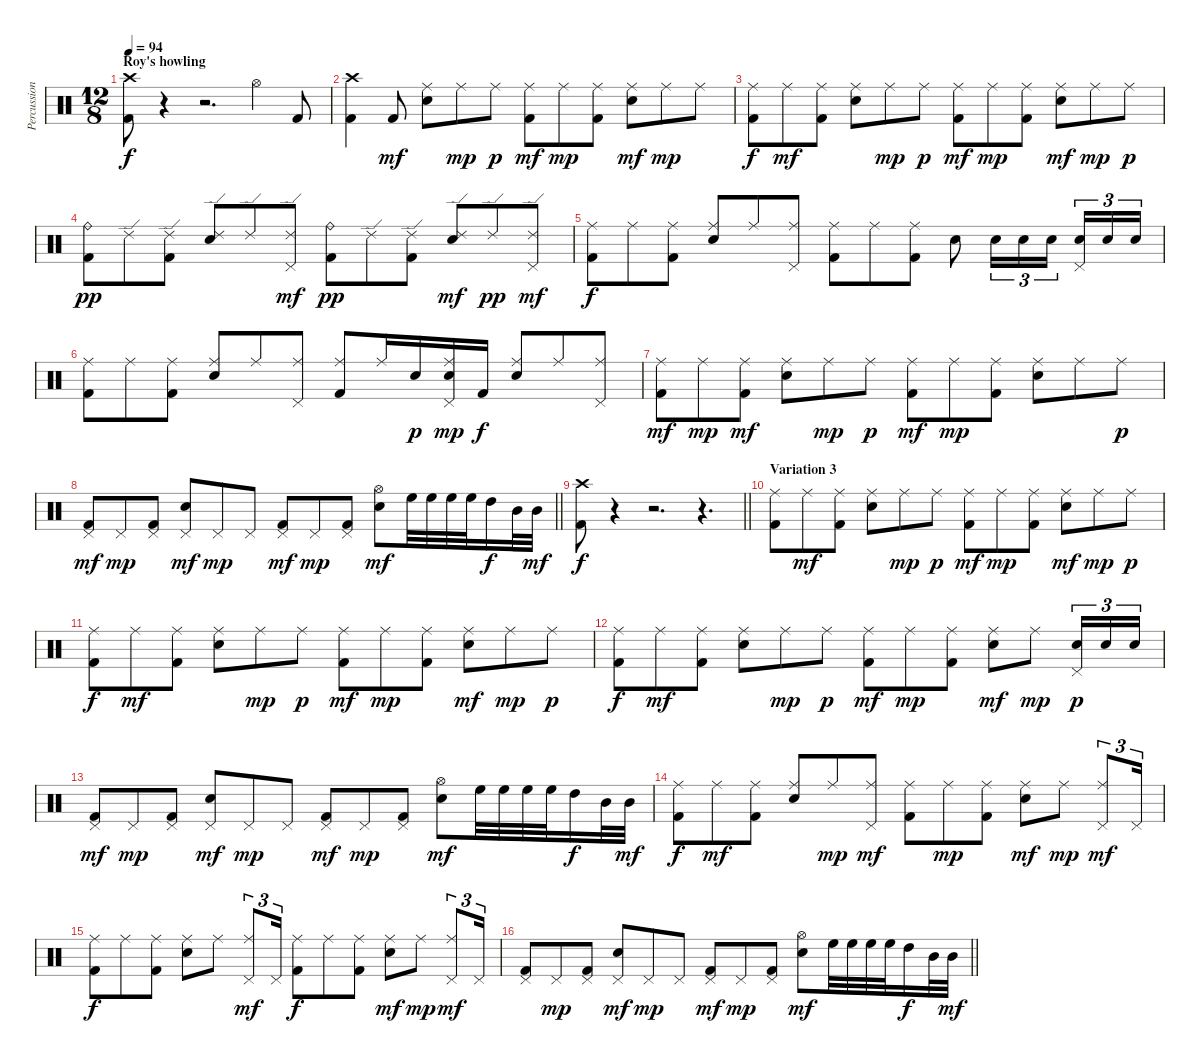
\track ("Percussions" "Percussion") {instrument percussion}
\staff {score}
\articulation defaults
\ts (12 8)
\section ("" "Roy's howling")
\tempo 94
\clef neutral
\ks c
("Crash high (hit)" "Kick (hit) 2").8{dy f} r.4 r.2{d} "Hi-Hat (open)".4 "Kick (hit) 2".8 |
("Crash high (hit)" "Kick (hit) 2").4 "Kick (hit) 2".8{dy mf} ("Ride (middle)" "Electric Snare (hit)").8 "Ride (middle)".8{dy mp} "Ride (middle)".8{dy p} ("Ride (middle)" "Kick (hit) 2").8{dy mf} "Ride (middle)".8{dy mp} ("Ride (middle)" "Kick (hit) 2").8 ("Ride (middle)" "Electric Snare (hit)").8{dy mf} "Ride (middle)".8{dy mp} "Ride (middle)".8 |
("Ride (middle)" "Kick (hit) 2").8{dy f} "Ride (middle)".8{dy mf} ("Ride (middle)" "Kick (hit) 2").8 ("Ride (middle)" "Electric Snare (hit)").8 "Ride (middle)".8{dy mp} "Ride (middle)".8{dy p} ("Ride (middle)" "Kick (hit) 2").8{dy mf} "Ride (middle)".8{dy mp} ("Ride (middle)" "Kick (hit) 2").8 ("Ride (middle)" "Electric Snare (hit)").8{dy mf} "Ride (middle)".8{dy mp} "Ride (middle)".8{dy p} |
("Ride (bell)" "Kick (hit) 2").8{dy pp} "Ride (edge) 2".8 ("Ride (edge) 2" "Kick (hit) 2").8 ("Ride (edge) 2" "Electric Snare (hit)").8 "Ride (edge) 2".8 ("Ride (edge) 2" "Pedal Hi-Hat (hit)").8{dy mf} ("Ride (bell)" "Kick (hit) 2").8{dy pp} "Ride (edge) 2".8 ("Ride (edge) 2" "Kick (hit) 2").8 ("Ride (edge) 2" "Electric Snare (hit)").8{dy mf} "Ride (edge) 2".8{dy pp} ("Ride (edge) 2" "Pedal Hi-Hat (hit)").8{dy mf} |
("Ride (middle)" "Kick (hit) 2").8{dy f} "Ride (middle)".8 ("Ride (middle)" "Kick (hit) 2").8 ("Ride (middle)" "Electric Snare (hit)").8 "Ride (middle)".8 ("Ride (middle)" "Pedal Hi-Hat (hit)").8 ("Ride (middle)" "Kick (hit) 2").8 "Ride (middle)".8 ("Ride (middle)" "Kick (hit) 2").8 "Electric Snare (hit)".8 "Electric Snare (hit)".16{tu (3 2)} "Electric Snare (hit)".16{tu (3 2)} "Electric Snare (hit)".16{tu (3 2) beam splitsecondary} ("Pedal Hi-Hat (hit)" "Electric Snare (hit)").16{tu (3 2)} "Electric Snare (hit)".16{tu (3 2)} "Electric Snare (hit)".16{tu (3 2)} |
("Ride (middle)" "Kick (hit) 2").8 "Ride (middle)".8 ("Ride (middle)" "Kick (hit) 2").8 ("Ride (middle)" "Electric Snare (hit)").8 "Ride (middle)".8 ("Ride (middle)" "Pedal Hi-Hat (hit)").8 ("Ride (middle)" "Kick (hit) 2").8 "Ride (middle)".16 "Electric Snare (hit)".16{dy p} ("Ride (middle)" "Pedal Hi-Hat (hit)" "Electric Snare (hit)").16{dy mp} "Kick (hit) 2".16{dy f} ("Ride (middle)" "Electric Snare (hit)").8 "Ride (middle)".8 ("Ride (middle)" "Pedal Hi-Hat (hit)").8 |
("Ride (middle)" "Kick (hit) 2").8{dy mf} "Ride (middle)".8{dy mp} ("Ride (middle)" "Kick (hit) 2").8{dy mf} ("Ride (middle)" "Electric Snare (hit)").8 "Ride (middle)".8{dy mp} "Ride (middle)".8{dy p} ("Ride (middle)" "Kick (hit) 2").8{dy mf} "Ride (middle)".8{dy mp} ("Ride (middle)" "Kick (hit) 2").8 ("Ride (middle)" "Electric Snare (hit)").8 "Ride (middle)".8 "Ride (middle)".8{dy p} |
\barLineRight lightlight
("Pedal Hi-Hat (hit)" "Kick (hit) 2").8{dy mf} "Pedal Hi-Hat (hit)".8{dy mp} ("Pedal Hi-Hat (hit)" "Kick (hit) 2").8 ("Pedal Hi-Hat (hit)" "Electric Snare (hit)").8{dy mf} "Pedal Hi-Hat (hit)".8{dy mp} "Pedal Hi-Hat (hit)".8 ("Pedal Hi-Hat (hit)" "Kick (hit) 2").8{dy mf} "Pedal Hi-Hat (hit)".8{dy mp} ("Pedal Hi-Hat (hit)" "Kick (hit) 2").8 ("Hi-Hat (open)" "Electric Snare (hit)").8{dy mf} "High Floor Tom (hit)".32 "High Floor Tom (hit)".32 "High Floor Tom (hit)".32 "High Floor Tom (hit)".32 "High Tom (hit)".16{dy f} "Mid Tom (hit)".32 "Mid Tom (hit)".32{dy mf} |
\barLineRight lightlight
("Crash high (hit)" "Kick (hit) 2").8{dy f} r.4 r.2{d} r.4{d} |
\section ("" "Variation 3")
("Ride (middle)" "Kick (hit) 2").8 "Ride (middle)".8{dy mf} ("Ride (middle)" "Kick (hit) 2").8 ("Ride (middle)" "Electric Snare (hit)").8 "Ride (middle)".8{dy mp} "Ride (middle)".8{dy p} ("Ride (middle)" "Kick (hit) 2").8{dy mf} "Ride (middle)".8{dy mp} ("Ride (middle)" "Kick (hit) 2").8 ("Ride (middle)" "Electric Snare (hit)").8{dy mf} "Ride (middle)".8{dy mp} "Ride (middle)".8{dy p} |
("Ride (middle)" "Kick (hit) 2").8{dy f} "Ride (middle)".8{dy mf} ("Ride (middle)" "Kick (hit) 2").8 ("Ride (middle)" "Electric Snare (hit)").8 "Ride (middle)".8{dy mp} "Ride (middle)".8{dy p} ("Ride (middle)" "Kick (hit) 2").8{dy mf} "Ride (middle)".8{dy mp} ("Ride (middle)" "Kick (hit) 2").8 ("Ride (middle)" "Electric Snare (hit)").8{dy mf} "Ride (middle)".8{dy mp} "Ride (middle)".8{dy p} |
("Ride (middle)" "Kick (hit) 2").8{dy f} "Ride (middle)".8{dy mf} ("Ride (middle)" "Kick (hit) 2").8 ("Ride (middle)" "Electric Snare (hit)").8 "Ride (middle)".8{dy mp} "Ride (middle)".8{dy p} ("Ride (middle)" "Kick (hit) 2").8{dy mf} "Ride (middle)".8{dy mp} ("Ride (middle)" "Kick (hit) 2").8 ("Ride (middle)" "Electric Snare (hit)").8{dy mf} "Ride (middle)".8{dy mp} ("Pedal Hi-Hat (hit)" "Electric Snare (hit)").16{tu (3 2) dy p} "Electric Snare (hit)".16{tu (3 2)} "Electric Snare (hit)".16{tu (3 2)} |
("Pedal Hi-Hat (hit)" "Kick (hit) 2").8{dy mf} "Pedal Hi-Hat (hit)".8{dy mp} ("Pedal Hi-Hat (hit)" "Kick (hit) 2").8 ("Pedal Hi-Hat (hit)" "Electric Snare (hit)").8{dy mf} "Pedal Hi-Hat (hit)".8{dy mp} "Pedal Hi-Hat (hit)".8 ("Pedal Hi-Hat (hit)" "Kick (hit) 2").8{dy mf} "Pedal Hi-Hat (hit)".8{dy mp} ("Pedal Hi-Hat (hit)" "Kick (hit) 2").8 ("Hi-Hat (open)" "Electric Snare (hit)").8{dy mf} "High Floor Tom (hit)".32 "High Floor Tom (hit)".32 "High Floor Tom (hit)".32 "High Floor Tom (hit)".32 "High Tom (hit)".16{dy f} "Mid Tom (hit)".32 "Mid Tom (hit)".32{dy mf} |
("Ride (middle)" "Kick (hit) 2").8{dy f} "Ride (middle)".8{dy mf} ("Ride (middle)" "Kick (hit) 2").8 ("Ride (middle)" "Electric Snare (hit)").8 "Ride (middle)".8{dy mp} ("Ride (middle)" "Pedal Hi-Hat (hit)").8{dy mf} ("Ride (middle)" "Kick (hit) 2").8 "Ride (middle)".8{dy mp} ("Ride (middle)" "Kick (hit) 2").8 ("Ride (middle)" "Electric Snare (hit)").8{dy mf} "Ride (middle)".8{dy mp} ("Ride (middle)" "Pedal Hi-Hat (hit)").8{tu (3 2) dy mf} "Pedal Hi-Hat (hit)".16{tu (3 2)} |
("Ride (middle)" "Kick (hit) 2").8{dy f} "Ride (middle)".8 ("Ride (middle)" "Kick (hit) 2").8 ("Ride (middle)" "Electric Snare (hit)").8 "Ride (middle)".8 ("Ride (middle)" "Pedal Hi-Hat (hit)").8{tu (3 2) dy mf} "Pedal Hi-Hat (hit)".16{tu (3 2)} ("Ride (middle)" "Kick (hit) 2").8{dy f} "Ride (middle)".8 ("Ride (middle)" "Kick (hit) 2").8 ("Ride (middle)" "Electric Snare (hit)").8{dy mf} "Ride (middle)".8{dy mp} ("Ride (middle)" "Pedal Hi-Hat (hit)").8{tu (3 2) dy mf} "Pedal Hi-Hat (hit)".16{tu (3 2)} |
\barLineRight lightlight
("Pedal Hi-Hat (hit)" "Kick (hit) 2").8 "Pedal Hi-Hat (hit)".8{dy mp} ("Pedal Hi-Hat (hit)" "Kick (hit) 2").8 ("Pedal Hi-Hat (hit)" "Electric Snare (hit)").8{dy mf} "Pedal Hi-Hat (hit)".8{dy mp} "Pedal Hi-Hat (hit)".8 ("Pedal Hi-Hat (hit)" "Kick (hit) 2").8{dy mf} "Pedal Hi-Hat (hit)".8{dy mp} ("Pedal Hi-Hat (hit)" "Kick (hit) 2").8 ("Hi-Hat (open)" "Electric Snare (hit)").8{dy mf} "High Floor Tom (hit)".32 "High Floor Tom (hit)".32 "High Floor Tom (hit)".32 "High Floor Tom (hit)".32 "High Tom (hit)".16{dy f} "Mid Tom (hit)".32 "Mid Tom (hit)".32{dy mf}
